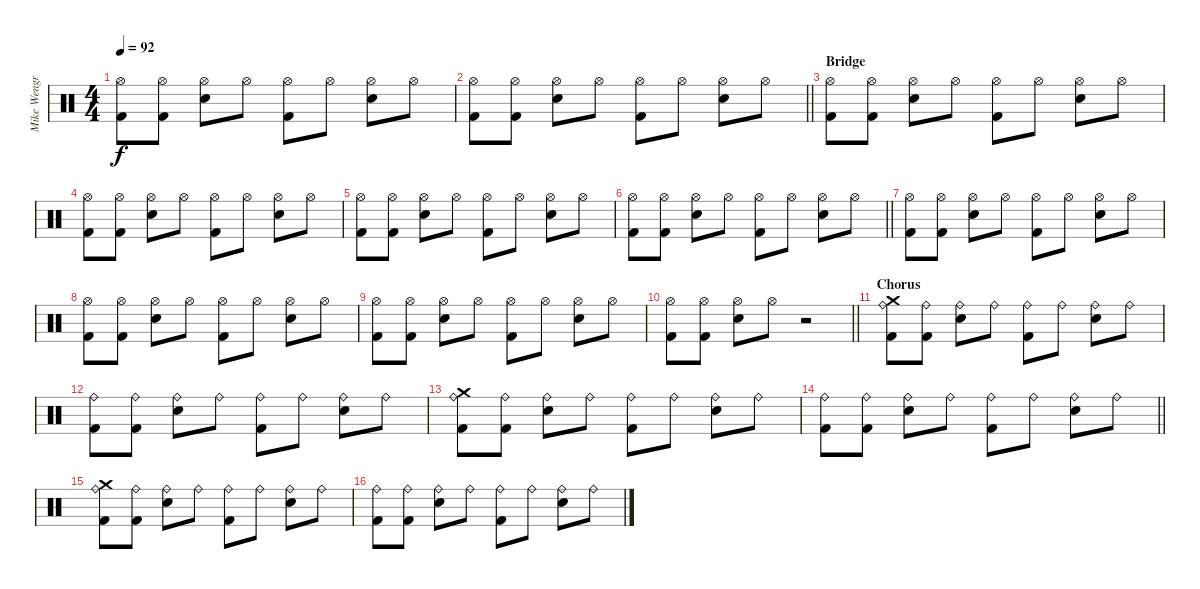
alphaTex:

\track ("Mike Wengren" "Mike Wengr") {instrument percussion}
\staff {score}
\articulation defaults
\ts (4 4)
\tempo 92
\clef neutral
\ks c
("Kick (hit) 2" "Hi-Hat (open)").8{dy f} ("Kick (hit) 2" "Hi-Hat (open)").8 ("Electric Snare (hit)" "Hi-Hat (open)").8 "Hi-Hat (open)".8 ("Kick (hit) 2" "Hi-Hat (open)").8 "Hi-Hat (open)".8 ("Electric Snare (hit)" "Hi-Hat (open)").8 "Hi-Hat (open)".8 |
\barLineRight lightlight
("Kick (hit) 2" "Hi-Hat (open)").8 ("Kick (hit) 2" "Hi-Hat (open)").8 ("Electric Snare (hit)" "Hi-Hat (open)").8 "Hi-Hat (open)".8 ("Kick (hit) 2" "Hi-Hat (open)").8 "Hi-Hat (open)".8 ("Electric Snare (hit)" "Hi-Hat (open)").8 "Hi-Hat (open)".8 |
\section ("" "Bridge")
("Kick (hit) 2" "Hi-Hat (open)").8 ("Kick (hit) 2" "Hi-Hat (open)").8 ("Electric Snare (hit)" "Hi-Hat (open)").8 "Hi-Hat (open)".8 ("Kick (hit) 2" "Hi-Hat (open)").8 "Hi-Hat (open)".8 ("Electric Snare (hit)" "Hi-Hat (open)").8 "Hi-Hat (open)".8 |
("Kick (hit) 2" "Hi-Hat (open)").8 ("Kick (hit) 2" "Hi-Hat (open)").8 ("Electric Snare (hit)" "Hi-Hat (open)").8 "Hi-Hat (open)".8 ("Kick (hit) 2" "Hi-Hat (open)").8 "Hi-Hat (open)".8 ("Electric Snare (hit)" "Hi-Hat (open)").8 "Hi-Hat (open)".8 |
("Kick (hit) 2" "Hi-Hat (open)").8 ("Kick (hit) 2" "Hi-Hat (open)").8 ("Electric Snare (hit)" "Hi-Hat (open)").8 "Hi-Hat (open)".8 ("Kick (hit) 2" "Hi-Hat (open)").8 "Hi-Hat (open)".8 ("Electric Snare (hit)" "Hi-Hat (open)").8 "Hi-Hat (open)".8 |
\barLineRight lightlight
("Kick (hit) 2" "Hi-Hat (open)").8 ("Kick (hit) 2" "Hi-Hat (open)").8 ("Electric Snare (hit)" "Hi-Hat (open)").8 "Hi-Hat (open)".8 ("Kick (hit) 2" "Hi-Hat (open)").8 "Hi-Hat (open)".8 ("Electric Snare (hit)" "Hi-Hat (open)").8 "Hi-Hat (open)".8 |
("Kick (hit) 2" "Hi-Hat (open)").8 ("Kick (hit) 2" "Hi-Hat (open)").8 ("Electric Snare (hit)" "Hi-Hat (open)").8 "Hi-Hat (open)".8 ("Kick (hit) 2" "Hi-Hat (open)").8 "Hi-Hat (open)".8 ("Electric Snare (hit)" "Hi-Hat (open)").8 "Hi-Hat (open)".8 |
("Kick (hit) 2" "Hi-Hat (open)").8 ("Kick (hit) 2" "Hi-Hat (open)").8 ("Electric Snare (hit)" "Hi-Hat (open)").8 "Hi-Hat (open)".8 ("Kick (hit) 2" "Hi-Hat (open)").8 "Hi-Hat (open)".8 ("Electric Snare (hit)" "Hi-Hat (open)").8 "Hi-Hat (open)".8 |
("Kick (hit) 2" "Hi-Hat (open)").8 ("Kick (hit) 2" "Hi-Hat (open)").8 ("Electric Snare (hit)" "Hi-Hat (open)").8 "Hi-Hat (open)".8 ("Kick (hit) 2" "Hi-Hat (open)").8 "Hi-Hat (open)".8 ("Electric Snare (hit)" "Hi-Hat (open)").8 "Hi-Hat (open)".8 |
\barLineRight lightlight
("Kick (hit) 2" "Hi-Hat (open)").8 ("Kick (hit) 2" "Hi-Hat (open)").8 ("Electric Snare (hit)" "Hi-Hat (open)").8 "Hi-Hat (open)".8 r.2 |
\section ("" "Chorus")
("Kick (hit) 2" "Ride (bell)" "Crash medium (hit)").8 ("Kick (hit) 2" "Ride (bell)").8 ("Electric Snare (hit)" "Ride (bell)").8 "Ride (bell)".8 ("Kick (hit) 2" "Ride (bell)").8 "Ride (bell)".8 ("Electric Snare (hit)" "Ride (bell)").8 "Ride (bell)".8 |
("Kick (hit) 2" "Ride (bell)").8 ("Kick (hit) 2" "Ride (bell)").8 ("Electric Snare (hit)" "Ride (bell)").8 "Ride (bell)".8 ("Kick (hit) 2" "Ride (bell)").8 "Ride (bell)".8 ("Electric Snare (hit)" "Ride (bell)").8 "Ride (bell)".8 |
("Kick (hit) 2" "Ride (bell)" "Crash medium (hit)").8 ("Kick (hit) 2" "Ride (bell)").8 ("Electric Snare (hit)" "Ride (bell)").8 "Ride (bell)".8 ("Kick (hit) 2" "Ride (bell)").8 "Ride (bell)".8 ("Electric Snare (hit)" "Ride (bell)").8 "Ride (bell)".8 |
\barLineRight lightlight
("Kick (hit) 2" "Ride (bell)").8 ("Kick (hit) 2" "Ride (bell)").8 ("Electric Snare (hit)" "Ride (bell)").8 "Ride (bell)".8 ("Kick (hit) 2" "Ride (bell)").8 "Ride (bell)".8 ("Electric Snare (hit)" "Ride (bell)").8 "Ride (bell)".8 |
("Kick (hit) 2" "Ride (bell)" "Crash medium (hit)").8 ("Kick (hit) 2" "Ride (bell)").8 ("Electric Snare (hit)" "Ride (bell)").8 "Ride (bell)".8 ("Kick (hit) 2" "Ride (bell)").8 "Ride (bell)".8 ("Electric Snare (hit)" "Ride (bell)").8 "Ride (bell)".8 |
("Kick (hit) 2" "Ride (bell)").8 ("Kick (hit) 2" "Ride (bell)").8 ("Electric Snare (hit)" "Ride (bell)").8 "Ride (bell)".8 ("Kick (hit) 2" "Ride (bell)").8 "Ride (bell)".8 ("Electric Snare (hit)" "Ride (bell)").8 "Ride (bell)".8
